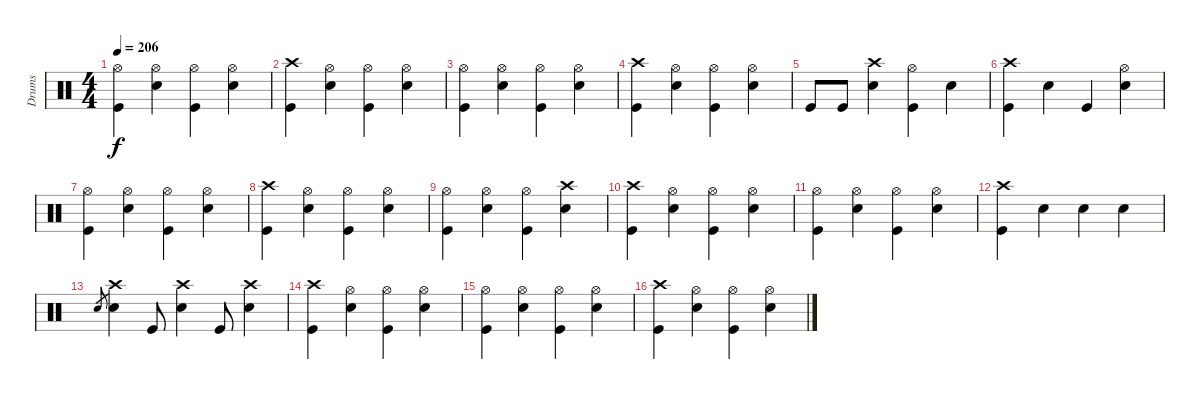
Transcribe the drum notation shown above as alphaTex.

\track ("Drums" "Drums") {instrument percussion}
\staff {score}
\articulation defaults
\ts (4 4)
\tempo 206
\clef neutral
\ks c
("Hi-Hat (open)" "Kick (hit)").4{dy f} ("Hi-Hat (open)" "Electric Snare (hit)").4 ("Hi-Hat (open)" "Kick (hit)").4 ("Hi-Hat (open)" "Electric Snare (hit)").4 |
("Crash high (hit)" "Kick (hit)").4 ("Hi-Hat (open)" "Electric Snare (hit)").4 ("Hi-Hat (open)" "Kick (hit)").4 ("Hi-Hat (open)" "Electric Snare (hit)").4 |
("Hi-Hat (open)" "Kick (hit)").4 ("Hi-Hat (open)" "Electric Snare (hit)").4 ("Hi-Hat (open)" "Kick (hit)").4 ("Hi-Hat (open)" "Electric Snare (hit)").4 |
("Crash high (hit)" "Kick (hit)").4 ("Hi-Hat (open)" "Electric Snare (hit)").4 ("Hi-Hat (open)" "Kick (hit)").4 ("Hi-Hat (open)" "Electric Snare (hit)").4 |
"Kick (hit)".8 "Kick (hit)".8 ("Crash high (hit)" "Electric Snare (hit)").4 ("Hi-Hat (open)" "Kick (hit)").4 "Electric Snare (hit)".4 |
("Crash high (hit)" "Kick (hit)").4 "Electric Snare (hit)".4 "Kick (hit)".4 ("Hi-Hat (open)" "Electric Snare (hit)").4 |
("Hi-Hat (open)" "Kick (hit)").4 ("Hi-Hat (open)" "Electric Snare (hit)").4 ("Hi-Hat (open)" "Kick (hit)").4 ("Hi-Hat (open)" "Electric Snare (hit)").4 |
("Crash high (hit)" "Kick (hit)").4 ("Hi-Hat (open)" "Electric Snare (hit)").4 ("Hi-Hat (open)" "Kick (hit)").4 ("Hi-Hat (open)" "Electric Snare (hit)").4 |
("Hi-Hat (open)" "Kick (hit)").4 ("Hi-Hat (open)" "Electric Snare (hit)").4 ("Hi-Hat (open)" "Kick (hit)").4 ("Crash high (hit)" "Electric Snare (hit)").4 |
("Crash high (hit)" "Kick (hit)").4 ("Hi-Hat (open)" "Electric Snare (hit)").4 ("Hi-Hat (open)" "Kick (hit)").4 ("Hi-Hat (open)" "Electric Snare (hit)").4 |
("Hi-Hat (open)" "Kick (hit)").4 ("Hi-Hat (open)" "Electric Snare (hit)").4 ("Hi-Hat (open)" "Kick (hit)").4 ("Hi-Hat (open)" "Electric Snare (hit)").4 |
("Crash high (hit)" "Kick (hit)").4 "Electric Snare (hit)".4 "Electric Snare (hit)".4 "Electric Snare (hit)".4 |
"Electric Snare (hit)".8{gr} ("Crash high (hit)" "Electric Snare (hit)").4 "Kick (hit)".8 ("Crash high (hit)" "Electric Snare (hit)").4 "Kick (hit)".8 ("Crash high (hit)" "Electric Snare (hit)").4 |
("Crash high (hit)" "Kick (hit)").4 ("Hi-Hat (open)" "Electric Snare (hit)").4 ("Hi-Hat (open)" "Kick (hit)").4 ("Hi-Hat (open)" "Electric Snare (hit)").4 |
("Hi-Hat (open)" "Kick (hit)").4 ("Hi-Hat (open)" "Electric Snare (hit)").4 ("Hi-Hat (open)" "Kick (hit)").4 ("Hi-Hat (open)" "Electric Snare (hit)").4 |
("Crash high (hit)" "Kick (hit)").4 ("Hi-Hat (open)" "Electric Snare (hit)").4 ("Hi-Hat (open)" "Kick (hit)").4 ("Hi-Hat (open)" "Electric Snare (hit)").4
